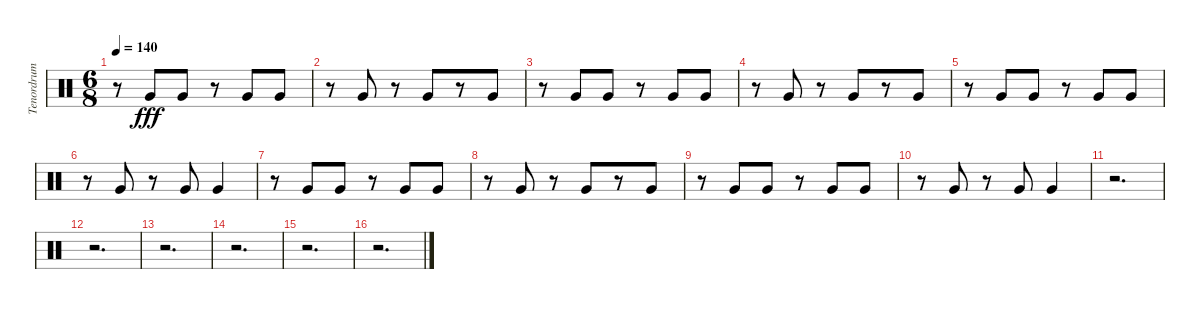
\track ("Tenordrum" "Tenordrum") {instrument percussion}
\staff {score}
\articulation defaults
\ts (6 8)
\tempo 140
\clef neutral
\ks c
r.8{dy fff} "Very Low Tom (hit)".8 "Very Low Tom (hit)".8 r.8 "Very Low Tom (hit)".8 "Very Low Tom (hit)".8 |
r.8 "Very Low Tom (hit)".8 r.8 "Very Low Tom (hit)".8 r.8 "Very Low Tom (hit)".8 |
r.8 "Very Low Tom (hit)".8 "Very Low Tom (hit)".8 r.8 "Very Low Tom (hit)".8 "Very Low Tom (hit)".8 |
r.8 "Very Low Tom (hit)".8 r.8 "Very Low Tom (hit)".8 r.8 "Very Low Tom (hit)".8 |
r.8 "Very Low Tom (hit)".8 "Very Low Tom (hit)".8 r.8 "Very Low Tom (hit)".8 "Very Low Tom (hit)".8 |
r.8 "Very Low Tom (hit)".8 r.8 "Very Low Tom (hit)".8 "Very Low Tom (hit)".4 |
r.8 "Very Low Tom (hit)".8 "Very Low Tom (hit)".8 r.8 "Very Low Tom (hit)".8 "Very Low Tom (hit)".8 |
r.8 "Very Low Tom (hit)".8 r.8 "Very Low Tom (hit)".8 r.8 "Very Low Tom (hit)".8 |
r.8 "Very Low Tom (hit)".8 "Very Low Tom (hit)".8 r.8 "Very Low Tom (hit)".8 "Very Low Tom (hit)".8 |
r.8 "Very Low Tom (hit)".8 r.8 "Very Low Tom (hit)".8 "Very Low Tom (hit)".4 |
r.2{d} |
r.2{d} |
r.2{d} |
r.2{d} |
r.2{d} |
r.2{d}
